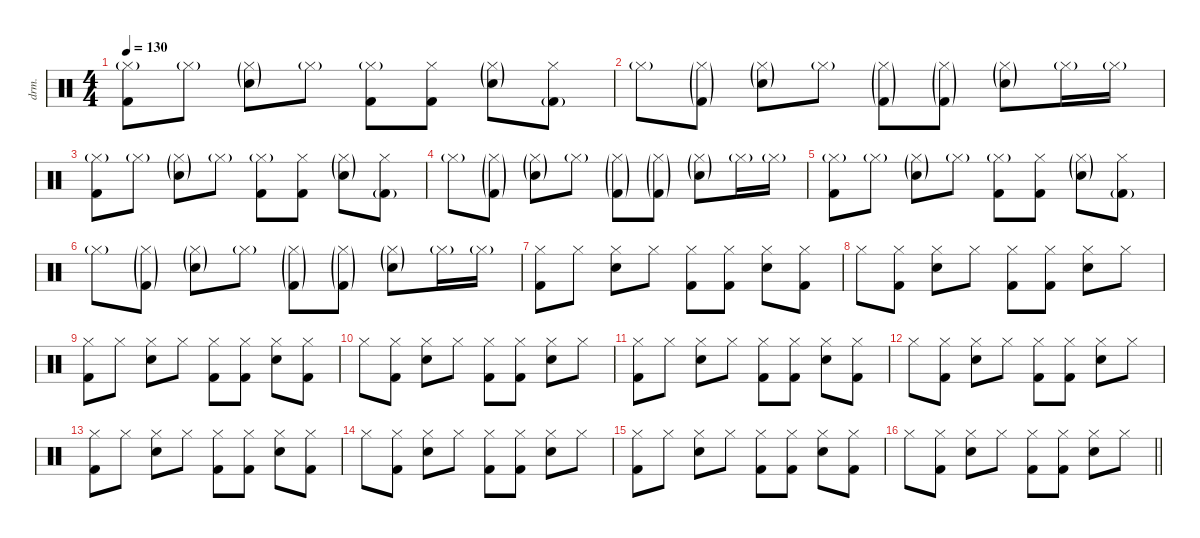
\defaultSystemsLayout 4
\hideDynamics
\bracketExtendMode nobrackets
\otherSystemsTrackNameOrientation horizontal
\track ("Jimmy" "drm.") {instrument percussion}
\staff {score}
\articulation defaults
\ts (4 4)
\tempo 130
\clef neutral
\ks c
("Hi-Hat (closed)"{g} "Kick (hit) 2").8{dy f beam Down} "Hi-Hat (closed)"{g}.8{dy mf beam Down} ("Hi-Hat (closed)"{g} "Snare (hit) 2"{g}).8{beam Down} "Hi-Hat (closed)"{g}.8{beam Down} ("Hi-Hat (closed)"{g} "Kick (hit) 2").8{dy f beam Down} ("Hi-Hat (closed)" "Kick (hit) 2").8{beam Down} ("Hi-Hat (closed)"{g} "Snare (hit) 2"{g}).8{dy mf beam Down} ("Hi-Hat (closed)" "Kick (hit) 2"{g}).8{dy f beam Down} |
"Hi-Hat (closed)"{g}.8{dy mf beam Down} ("Hi-Hat (closed)"{g} "Kick (hit) 2"{g}).8{beam Down} ("Hi-Hat (closed)"{g} "Snare (hit) 2"{g}).8{beam Down} "Hi-Hat (closed)"{g}.8{beam Down} ("Hi-Hat (closed)"{g} "Kick (hit) 2"{g}).8{beam Down} ("Hi-Hat (closed)"{g} "Kick (hit) 2"{g}).8{beam Down} ("Hi-Hat (closed)"{g} "Snare (hit) 2"{g}).8{beam Down} "Hi-Hat (closed)"{g}.16{beam Down} "Hi-Hat (closed)"{g}.16{beam Down} |
("Hi-Hat (closed)"{g} "Kick (hit) 2").8{dy f beam Down} "Hi-Hat (closed)"{g}.8{dy mf beam Down} ("Hi-Hat (closed)"{g} "Snare (hit) 2"{g}).8{beam Down} "Hi-Hat (closed)"{g}.8{beam Down} ("Hi-Hat (closed)"{g} "Kick (hit) 2").8{dy f beam Down} ("Hi-Hat (closed)" "Kick (hit) 2").8{beam Down} ("Hi-Hat (closed)"{g} "Snare (hit) 2"{g}).8{dy mf beam Down} ("Hi-Hat (closed)" "Kick (hit) 2"{g}).8{dy f beam Down} |
"Hi-Hat (closed)"{g}.8{dy mf beam Down} ("Hi-Hat (closed)"{g} "Kick (hit) 2"{g}).8{beam Down} ("Hi-Hat (closed)"{g} "Snare (hit) 2"{g}).8{beam Down} "Hi-Hat (closed)"{g}.8{beam Down} ("Hi-Hat (closed)"{g} "Kick (hit) 2"{g}).8{beam Down} ("Hi-Hat (closed)"{g} "Kick (hit) 2"{g}).8{beam Down} ("Hi-Hat (closed)"{g} "Snare (hit) 2"{g}).8{beam Down} "Hi-Hat (closed)"{g}.16{beam Down} "Hi-Hat (closed)"{g}.16{beam Down} |
("Hi-Hat (closed)"{g} "Kick (hit) 2").8{dy f beam Down} "Hi-Hat (closed)"{g}.8{dy mf beam Down} ("Hi-Hat (closed)"{g} "Snare (hit) 2"{g}).8{beam Down} "Hi-Hat (closed)"{g}.8{beam Down} ("Hi-Hat (closed)"{g} "Kick (hit) 2").8{dy f beam Down} ("Hi-Hat (closed)" "Kick (hit) 2").8{beam Down} ("Hi-Hat (closed)"{g} "Snare (hit) 2"{g}).8{dy mf beam Down} ("Hi-Hat (closed)" "Kick (hit) 2"{g}).8{dy f beam Down} |
"Hi-Hat (closed)"{g}.8{dy mf beam Down} ("Hi-Hat (closed)"{g} "Kick (hit) 2"{g}).8{beam Down} ("Hi-Hat (closed)"{g} "Snare (hit) 2"{g}).8{beam Down} "Hi-Hat (closed)"{g}.8{beam Down} ("Hi-Hat (closed)"{g} "Kick (hit) 2"{g}).8{beam Down} ("Hi-Hat (closed)"{g} "Kick (hit) 2"{g}).8{beam Down} ("Hi-Hat (closed)"{g} "Snare (hit) 2"{g}).8{beam Down} "Hi-Hat (closed)"{g}.16{beam Down} "Hi-Hat (closed)"{g}.16{beam Down} |
("Hi-Hat (closed)" "Kick (hit) 2").8{dy f beam Down} "Hi-Hat (closed)".8{beam Down} ("Hi-Hat (closed)" "Snare (hit) 2").8{beam Down} "Hi-Hat (closed)".8{beam Down} ("Hi-Hat (closed)" "Kick (hit) 2").8{beam Down} ("Hi-Hat (closed)" "Kick (hit) 2").8{beam Down} ("Hi-Hat (closed)" "Snare (hit) 2").8{beam Down} ("Hi-Hat (closed)" "Kick (hit) 2").8{beam Down} |
"Hi-Hat (closed)".8{beam Down} ("Hi-Hat (closed)" "Kick (hit) 2").8{beam Down} ("Hi-Hat (closed)" "Snare (hit) 2").8{beam Down} "Hi-Hat (closed)".8{beam Down} ("Hi-Hat (closed)" "Kick (hit) 2").8{beam Down} ("Hi-Hat (closed)" "Kick (hit) 2").8{beam Down} ("Hi-Hat (closed)" "Snare (hit) 2").8{beam Down} "Hi-Hat (closed)".8{beam Down} |
("Hi-Hat (closed)" "Kick (hit) 2").8{beam Down} "Hi-Hat (closed)".8{beam Down} ("Hi-Hat (closed)" "Snare (hit) 2").8{beam Down} "Hi-Hat (closed)".8{beam Down} ("Hi-Hat (closed)" "Kick (hit) 2").8{beam Down} ("Hi-Hat (closed)" "Kick (hit) 2").8{beam Down} ("Hi-Hat (closed)" "Snare (hit) 2").8{beam Down} ("Hi-Hat (closed)" "Kick (hit) 2").8{beam Down} |
"Hi-Hat (closed)".8{beam Down} ("Hi-Hat (closed)" "Kick (hit) 2").8{beam Down} ("Hi-Hat (closed)" "Snare (hit) 2").8{beam Down} "Hi-Hat (closed)".8{beam Down} ("Hi-Hat (closed)" "Kick (hit) 2").8{beam Down} ("Hi-Hat (closed)" "Kick (hit) 2").8{beam Down} ("Hi-Hat (closed)" "Snare (hit) 2").8{beam Down} "Hi-Hat (closed)".8{beam Down} |
("Hi-Hat (closed)" "Kick (hit) 2").8{beam Down} "Hi-Hat (closed)".8{beam Down} ("Hi-Hat (closed)" "Snare (hit) 2").8{beam Down} "Hi-Hat (closed)".8{beam Down} ("Hi-Hat (closed)" "Kick (hit) 2").8{beam Down} ("Hi-Hat (closed)" "Kick (hit) 2").8{beam Down} ("Hi-Hat (closed)" "Snare (hit) 2").8{beam Down} ("Hi-Hat (closed)" "Kick (hit) 2").8{beam Down} |
"Hi-Hat (closed)".8{beam Down} ("Hi-Hat (closed)" "Kick (hit) 2").8{beam Down} ("Hi-Hat (closed)" "Snare (hit) 2").8{beam Down} "Hi-Hat (closed)".8{beam Down} ("Hi-Hat (closed)" "Kick (hit) 2").8{beam Down} ("Hi-Hat (closed)" "Kick (hit) 2").8{beam Down} ("Hi-Hat (closed)" "Snare (hit) 2").8{beam Down} "Hi-Hat (closed)".8{beam Down} |
("Hi-Hat (closed)" "Kick (hit) 2").8{beam Down} "Hi-Hat (closed)".8{beam Down} ("Hi-Hat (closed)" "Snare (hit) 2").8{beam Down} "Hi-Hat (closed)".8{beam Down} ("Hi-Hat (closed)" "Kick (hit) 2").8{beam Down} ("Hi-Hat (closed)" "Kick (hit) 2").8{beam Down} ("Hi-Hat (closed)" "Snare (hit) 2").8{beam Down} ("Hi-Hat (closed)" "Kick (hit) 2").8{beam Down} |
"Hi-Hat (closed)".8{beam Down} ("Hi-Hat (closed)" "Kick (hit) 2").8{beam Down} ("Hi-Hat (closed)" "Snare (hit) 2").8{beam Down} "Hi-Hat (closed)".8{beam Down} ("Hi-Hat (closed)" "Kick (hit) 2").8{beam Down} ("Hi-Hat (closed)" "Kick (hit) 2").8{beam Down} ("Hi-Hat (closed)" "Snare (hit) 2").8{beam Down} "Hi-Hat (closed)".8{beam Down} |
("Hi-Hat (closed)" "Kick (hit) 2").8{beam Down} "Hi-Hat (closed)".8{beam Down} ("Hi-Hat (closed)" "Snare (hit) 2").8{beam Down} "Hi-Hat (closed)".8{beam Down} ("Hi-Hat (closed)" "Kick (hit) 2").8{beam Down} ("Hi-Hat (closed)" "Kick (hit) 2").8{beam Down} ("Hi-Hat (closed)" "Snare (hit) 2").8{beam Down} ("Hi-Hat (closed)" "Kick (hit) 2").8{beam Down} |
\barLineRight lightlight "Hi-Hat (closed)".8{beam Down}
("Hi-Hat (closed)" "Kick (hit) 2").8{beam Down} ("Hi-Hat (closed)" "Snare (hit) 2").8{beam Down} "Hi-Hat (closed)".8{beam Down} ("Hi-Hat (closed)" "Kick (hit) 2").8{beam Down} ("Hi-Hat (closed)" "Kick (hit) 2").8{beam Down} ("Hi-Hat (closed)" "Snare (hit) 2").8{beam Down} "Hi-Hat (closed)".8{beam Down}
